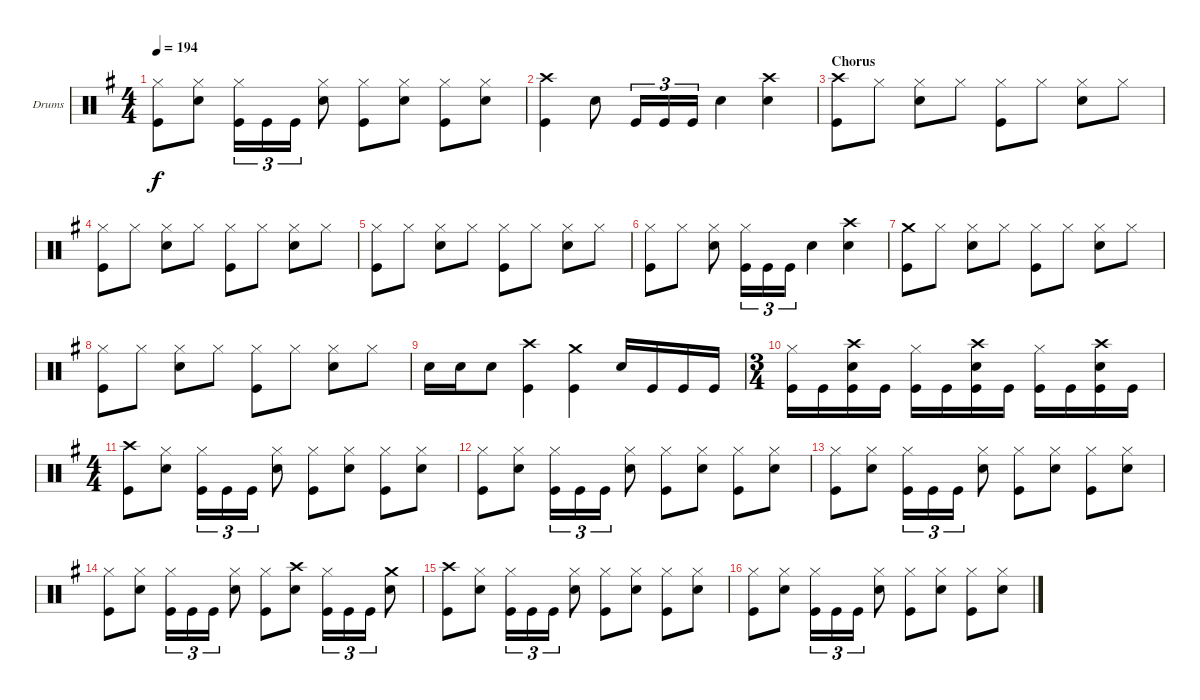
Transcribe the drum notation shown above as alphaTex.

\bracketExtendMode groupsimilarinstruments
\firstSystemTrackNameOrientation horizontal
\otherSystemsTrackNameOrientation horizontal
\track ("Drumkit" "Drums") {instrument percussion}
\staff {score}
\articulation defaults
\ts (4 4)
\tempo 194
\clef neutral
\scale
1.04288
\ks g
("Hi-Hat (closed)" "Kick (hit)").8{dy f} ("Hi-Hat (closed)" "Snare (hit) 2").8 ("Hi-Hat (closed)" "Kick (hit)").16{tu (3 2)} "Kick (hit)".16{tu (3 2)} "Kick (hit)".16{tu (3 2)} ("Hi-Hat (closed)" "Snare (hit) 2").8 ("Hi-Hat (closed)" "Kick (hit)").8 ("Hi-Hat (closed)" "Snare (hit) 2").8 ("Hi-Hat (closed)" "Kick (hit)").8 ("Hi-Hat (closed)" "Snare (hit) 2").8 |
\scale
0.957125 ("Crash high (hit)" "Kick (hit)").4 "Snare (hit) 2".8 "Kick (hit)".16{tu (3 2)} "Kick (hit)".16{tu (3 2)} "Kick (hit)".16{tu (3 2)} "Snare (hit) 2".4 ("Crash high (hit)" "Snare (hit) 2").4 |
\section ("" "Chorus")
\scale
1.04288 ("Crash high (hit)" "Kick (hit)").8 "Hi-Hat (closed)".8 ("Hi-Hat (closed)" "Snare (hit) 2").8 "Hi-Hat (closed)".8 ("Hi-Hat (closed)" "Kick (hit)").8 "Hi-Hat (closed)".8 ("Hi-Hat (closed)" "Snare (hit) 2").8 "Hi-Hat (closed)".8 |
\scale
0.957125 ("Hi-Hat (closed)" "Kick (hit)").8 "Hi-Hat (closed)".8 ("Hi-Hat (closed)" "Snare (hit) 2").8 "Hi-Hat (closed)".8 ("Hi-Hat (closed)" "Kick (hit)").8 "Hi-Hat (closed)".8 ("Hi-Hat (closed)" "Snare (hit) 2").8 "Hi-Hat (closed)".8 |
\scale
1.04288 ("Hi-Hat (closed)" "Kick (hit)").8 "Hi-Hat (closed)".8 ("Hi-Hat (closed)" "Snare (hit) 2").8 "Hi-Hat (closed)".8 ("Hi-Hat (closed)" "Kick (hit)").8 "Hi-Hat (closed)".8 ("Hi-Hat (closed)" "Snare (hit) 2").8 "Hi-Hat (closed)".8 |
\scale
0.957125 ("Hi-Hat (closed)" "Kick (hit)").8 "Hi-Hat (closed)".8 ("Hi-Hat (closed)" "Snare (hit) 2").8 ("Hi-Hat (closed)" "Kick (hit)").16{tu (3 2)} "Kick (hit)".16{tu (3 2)} "Kick (hit)".16{tu (3 2)} "Snare (hit) 2".4 ("Crash high (hit)" "Snare (hit) 2").4 |
\scale
1.04288 ("Crash medium (hit)" "Kick (hit)").8 "Hi-Hat (closed)".8 ("Hi-Hat (closed)" "Snare (hit) 2").8 "Hi-Hat (closed)".8 ("Hi-Hat (closed)" "Kick (hit)").8 "Hi-Hat (closed)".8 ("Hi-Hat (closed)" "Snare (hit) 2").8 "Hi-Hat (closed)".8 |
\scale
0.957125 ("Hi-Hat (closed)" "Kick (hit)").8 "Hi-Hat (closed)".8 ("Hi-Hat (closed)" "Snare (hit) 2").8 "Hi-Hat (closed)".8 ("Hi-Hat (closed)" "Kick (hit)").8 "Hi-Hat (closed)".8 ("Hi-Hat (closed)" "Snare (hit) 2").8 "Hi-Hat (closed)".8 |
\scale
1.04288 "Snare (hit) 2".16 "Snare (hit) 2".16 "Snare (hit) 2".8 ("Crash high (hit)" "Kick (hit)").4 ("Crash medium (hit)" "Kick (hit)").4 "Snare (hit) 2".16 "Kick (hit)".16 "Kick (hit)".16 "Kick (hit)".16 |
\ts (3 4)
\scale
0.957125 ("Hi-Hat (closed)" "Kick (hit)").16 "Kick (hit)".16 ("Crash high (hit)" "Snare (hit) 2" "Kick (hit)").16 "Kick (hit)".16 ("Hi-Hat (closed)" "Kick (hit)").16 "Kick (hit)".16 ("Crash high (hit)" "Snare (hit) 2" "Kick (hit)").16 "Kick (hit)".16 ("Hi-Hat (closed)" "Kick (hit)").16 "Kick (hit)".16 ("Crash high (hit)" "Snare (hit) 2" "Kick (hit)").16 "Kick (hit)".16 |
\ts (4 4)
\scale
1.04288 ("Crash high (hit)" "Kick (hit)").8 ("Hi-Hat (closed)" "Snare (hit) 2").8 ("Hi-Hat (closed)" "Kick (hit)").16{tu (3 2)} "Kick (hit)".16{tu (3 2)} "Kick (hit)".16{tu (3 2)} ("Hi-Hat (closed)" "Snare (hit) 2").8 ("Hi-Hat (closed)" "Kick (hit)").8 ("Hi-Hat (closed)" "Snare (hit) 2").8 ("Hi-Hat (closed)" "Kick (hit)").8 ("Hi-Hat (closed)" "Snare (hit) 2").8 |
\scale
0.957125 ("Hi-Hat (closed)" "Kick (hit)").8 ("Hi-Hat (closed)" "Snare (hit) 2").8 ("Hi-Hat (closed)" "Kick (hit)").16{tu (3 2)} "Kick (hit)".16{tu (3 2)} "Kick (hit)".16{tu (3 2)} ("Hi-Hat (closed)" "Snare (hit) 2").8 ("Hi-Hat (closed)" "Kick (hit)").8 ("Hi-Hat (closed)" "Snare (hit) 2").8 ("Hi-Hat (closed)" "Kick (hit)").8 ("Hi-Hat (closed)" "Snare (hit) 2").8 |
\scale
1.04288 ("Hi-Hat (closed)" "Kick (hit)").8 ("Hi-Hat (closed)" "Snare (hit) 2").8 ("Hi-Hat (closed)" "Kick (hit)").16{tu (3 2)} "Kick (hit)".16{tu (3 2)} "Kick (hit)".16{tu (3 2)} ("Hi-Hat (closed)" "Snare (hit) 2").8 ("Hi-Hat (closed)" "Kick (hit)").8 ("Hi-Hat (closed)" "Snare (hit) 2").8 ("Hi-Hat (closed)" "Kick (hit)").8 ("Hi-Hat (closed)" "Snare (hit) 2").8 |
\scale
0.957125 ("Hi-Hat (closed)" "Kick (hit)").8 ("Hi-Hat (closed)" "Snare (hit) 2").8 ("Hi-Hat (closed)" "Kick (hit)").16{tu (3 2)} "Kick (hit)".16{tu (3 2)} "Kick (hit)".16{tu (3 2)} ("Hi-Hat (closed)" "Snare (hit) 2").8 ("Hi-Hat (closed)" "Kick (hit)").8 ("Crash high (hit)" "Snare (hit) 2").8 ("Hi-Hat (closed)" "Kick (hit)").16{tu (3 2)} "Kick (hit)".16{tu (3 2)} "Kick (hit)".16{tu (3 2)} ("Crash medium (hit)" "Snare (hit) 2").8 |
\scale
1.04288 ("Crash high (hit)" "Kick (hit)").8 ("Hi-Hat (closed)" "Snare (hit) 2").8 ("Hi-Hat (closed)" "Kick (hit)").16{tu (3 2)} "Kick (hit)".16{tu (3 2)} "Kick (hit)".16{tu (3 2)} ("Hi-Hat (closed)" "Snare (hit) 2").8 ("Hi-Hat (closed)" "Kick (hit)").8 ("Hi-Hat (closed)" "Snare (hit) 2").8 ("Hi-Hat (closed)" "Kick (hit)").8 ("Hi-Hat (closed)" "Snare (hit) 2").8 |
\scale
0.957125 ("Hi-Hat (closed)" "Kick (hit)").8 ("Hi-Hat (closed)" "Snare (hit) 2").8 ("Hi-Hat (closed)" "Kick (hit)").16{tu (3 2)} "Kick (hit)".16{tu (3 2)} "Kick (hit)".16{tu (3 2)} ("Hi-Hat (closed)" "Snare (hit) 2").8 ("Hi-Hat (closed)" "Kick (hit)").8 ("Hi-Hat (closed)" "Snare (hit) 2").8 ("Hi-Hat (closed)" "Kick (hit)").8 ("Hi-Hat (closed)" "Snare (hit) 2").8
